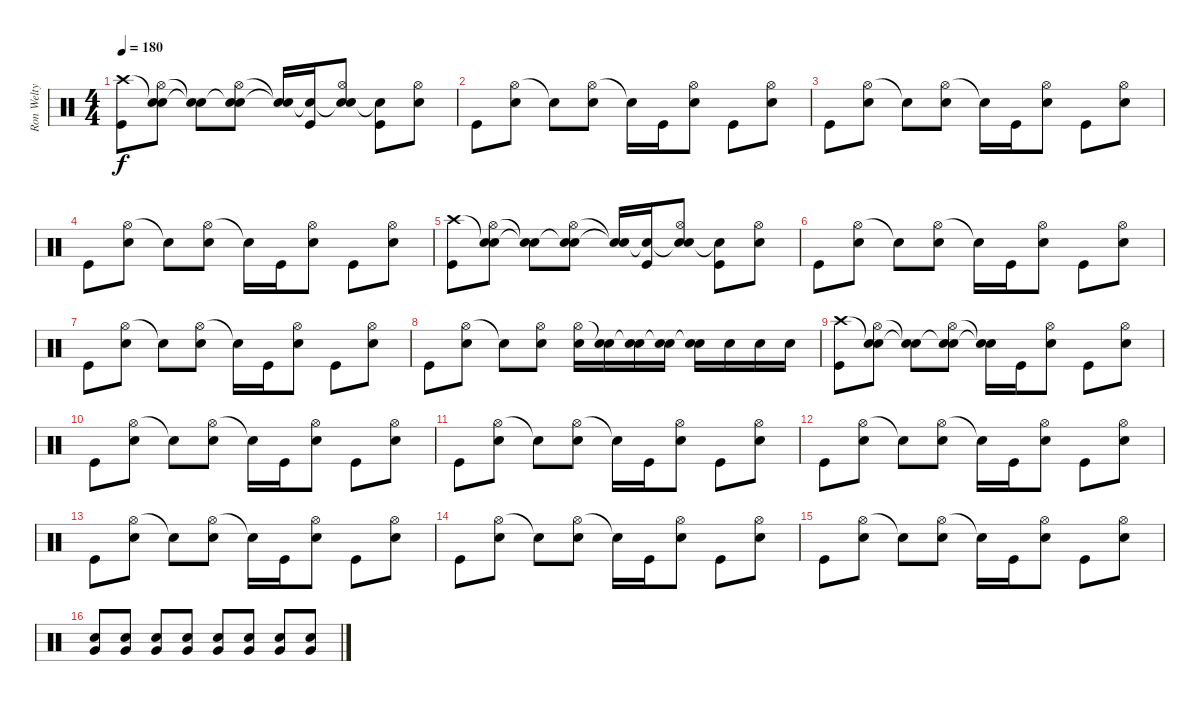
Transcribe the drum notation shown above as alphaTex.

\track ("Ron Welty" "Ron Welty") {instrument percussion}
\staff {score}
\articulation defaults
\ts (4 4)
\tempo 180
\clef neutral
\ks c
("Crash high (hit)" "Kick (hit)").8{dy f} ("Snare (hit)"{t} "Hi-Hat (open)" "Electric Snare (hit)").8 ("Snare (hit)"{t} "Snare (hit)"{t}).8 ("Snare (hit)"{t} "Hi-Hat (open)" "Electric Snare (hit)").8 ("Snare (hit)"{t} "Snare (hit)"{t}).16 ("Snare (hit)"{t} "Kick (hit)").16 ("Snare (hit)"{t} "Hi-Hat (open)" "Electric Snare (hit)").8 ("Snare (hit)"{t} "Kick (hit)").8 ("Hi-Hat (open)" "Electric Snare (hit)").8 |
"Kick (hit)".8 ("Hi-Hat (open)" "Electric Snare (hit)").8 "Snare (hit)"{t}.8 ("Hi-Hat (open)" "Electric Snare (hit)").8 "Snare (hit)"{t}.16 "Kick (hit)".16 ("Hi-Hat (open)" "Electric Snare (hit)").8 "Kick (hit)".8 ("Hi-Hat (open)" "Electric Snare (hit)").8 |
"Kick (hit)".8 ("Hi-Hat (open)" "Electric Snare (hit)").8 "Snare (hit)"{t}.8 ("Hi-Hat (open)" "Electric Snare (hit)").8 "Snare (hit)"{t}.16 "Kick (hit)".16 ("Hi-Hat (open)" "Electric Snare (hit)").8 "Kick (hit)".8 ("Hi-Hat (open)" "Electric Snare (hit)").8 |
"Kick (hit)".8 ("Hi-Hat (open)" "Electric Snare (hit)").8 "Snare (hit)"{t}.8 ("Hi-Hat (open)" "Electric Snare (hit)").8 "Snare (hit)"{t}.16 "Kick (hit)".16 ("Hi-Hat (open)" "Electric Snare (hit)").8 "Kick (hit)".8 ("Hi-Hat (open)" "Electric Snare (hit)").8 |
("Crash high (hit)" "Kick (hit)").8 ("Snare (hit)"{t} "Hi-Hat (open)" "Electric Snare (hit)").8 ("Snare (hit)"{t} "Snare (hit)"{t}).8 ("Snare (hit)"{t} "Hi-Hat (open)" "Electric Snare (hit)").8 ("Snare (hit)"{t} "Snare (hit)"{t}).16 ("Snare (hit)"{t} "Kick (hit)").16 ("Snare (hit)"{t} "Hi-Hat (open)" "Electric Snare (hit)").8 ("Snare (hit)"{t} "Kick (hit)").8 ("Hi-Hat (open)" "Electric Snare (hit)").8 |
"Kick (hit)".8 ("Hi-Hat (open)" "Electric Snare (hit)").8 "Snare (hit)"{t}.8 ("Hi-Hat (open)" "Electric Snare (hit)").8 "Snare (hit)"{t}.16 "Kick (hit)".16 ("Hi-Hat (open)" "Electric Snare (hit)").8 "Kick (hit)".8 ("Hi-Hat (open)" "Electric Snare (hit)").8 |
"Kick (hit)".8 ("Hi-Hat (open)" "Electric Snare (hit)").8 "Snare (hit)"{t}.8 ("Hi-Hat (open)" "Electric Snare (hit)").8 "Snare (hit)"{t}.16 "Kick (hit)".16 ("Hi-Hat (open)" "Electric Snare (hit)").8 "Kick (hit)".8 ("Hi-Hat (open)" "Electric Snare (hit)").8 |
"Kick (hit)".8 ("Hi-Hat (open)" "Electric Snare (hit)").8 "Snare (hit)"{t}.8 ("Hi-Hat (open)" "Electric Snare (hit)").8 ("Hi-Hat (open)" "Electric Snare (hit)").16 ("Snare (hit)"{t} "Electric Snare (hit)").16 ("Snare (hit)"{t} "Electric Snare (hit)").16 ("Snare (hit)"{t} "Electric Snare (hit)").16 ("Snare (hit)"{t} "Electric Snare (hit)").16 "Electric Snare (hit)".16 "Electric Snare (hit)".16 "Electric Snare (hit)".16 |
("Crash high (hit)" "Kick (hit)").8 ("Snare (hit)"{t} "Hi-Hat (open)" "Electric Snare (hit)").8 ("Snare (hit)"{t} "Snare (hit)"{t}).8 ("Snare (hit)"{t} "Hi-Hat (open)" "Electric Snare (hit)").8 ("Snare (hit)"{t} "Snare (hit)"{t}).16 "Kick (hit)".16 ("Hi-Hat (open)" "Electric Snare (hit)").8 "Kick (hit)".8 ("Hi-Hat (open)" "Electric Snare (hit)").8 |
"Kick (hit)".8 ("Hi-Hat (open)" "Electric Snare (hit)").8 "Snare (hit)"{t}.8 ("Hi-Hat (open)" "Electric Snare (hit)").8 "Snare (hit)"{t}.16 "Kick (hit)".16 ("Hi-Hat (open)" "Electric Snare (hit)").8 "Kick (hit)".8 ("Hi-Hat (open)" "Electric Snare (hit)").8 |
"Kick (hit)".8 ("Hi-Hat (open)" "Electric Snare (hit)").8 "Snare (hit)"{t}.8 ("Hi-Hat (open)" "Electric Snare (hit)").8 "Snare (hit)"{t}.16 "Kick (hit)".16 ("Hi-Hat (open)" "Electric Snare (hit)").8 "Kick (hit)".8 ("Hi-Hat (open)" "Electric Snare (hit)").8 |
"Kick (hit)".8 ("Hi-Hat (open)" "Electric Snare (hit)").8 "Snare (hit)"{t}.8 ("Hi-Hat (open)" "Electric Snare (hit)").8 "Snare (hit)"{t}.16 "Kick (hit)".16 ("Hi-Hat (open)" "Electric Snare (hit)").8 "Kick (hit)".8 ("Hi-Hat (open)" "Electric Snare (hit)").8 |
"Kick (hit)".8 ("Hi-Hat (open)" "Electric Snare (hit)").8 "Snare (hit)"{t}.8 ("Hi-Hat (open)" "Electric Snare (hit)").8 "Snare (hit)"{t}.16 "Kick (hit)".16 ("Hi-Hat (open)" "Electric Snare (hit)").8 "Kick (hit)".8 ("Hi-Hat (open)" "Electric Snare (hit)").8 |
"Kick (hit)".8 ("Hi-Hat (open)" "Electric Snare (hit)").8 "Snare (hit)"{t}.8 ("Hi-Hat (open)" "Electric Snare (hit)").8 "Snare (hit)"{t}.16 "Kick (hit)".16 ("Hi-Hat (open)" "Electric Snare (hit)").8 "Kick (hit)".8 ("Hi-Hat (open)" "Electric Snare (hit)").8 |
"Kick (hit)".8 ("Hi-Hat (open)" "Electric Snare (hit)").8 "Snare (hit)"{t}.8 ("Hi-Hat (open)" "Electric Snare (hit)").8 "Snare (hit)"{t}.16 "Kick (hit)".16 ("Hi-Hat (open)" "Electric Snare (hit)").8 "Kick (hit)".8 ("Hi-Hat (open)" "Electric Snare (hit)").8 |
("Very Low Tom (hit)" "Electric Snare (hit)").8{volume 7} ("Very Low Tom (hit)" "Electric Snare (hit)").8 ("Very Low Tom (hit)" "Electric Snare (hit)").8 ("Very Low Tom (hit)" "Electric Snare (hit)").8{volume 8} ("Very Low Tom (hit)" "Electric Snare (hit)").8 ("Very Low Tom (hit)" "Electric Snare (hit)").8{volume 9} ("Very Low Tom (hit)" "Electric Snare (hit)").8 ("Very Low Tom (hit)" "Electric Snare (hit)").8{volume 10}
